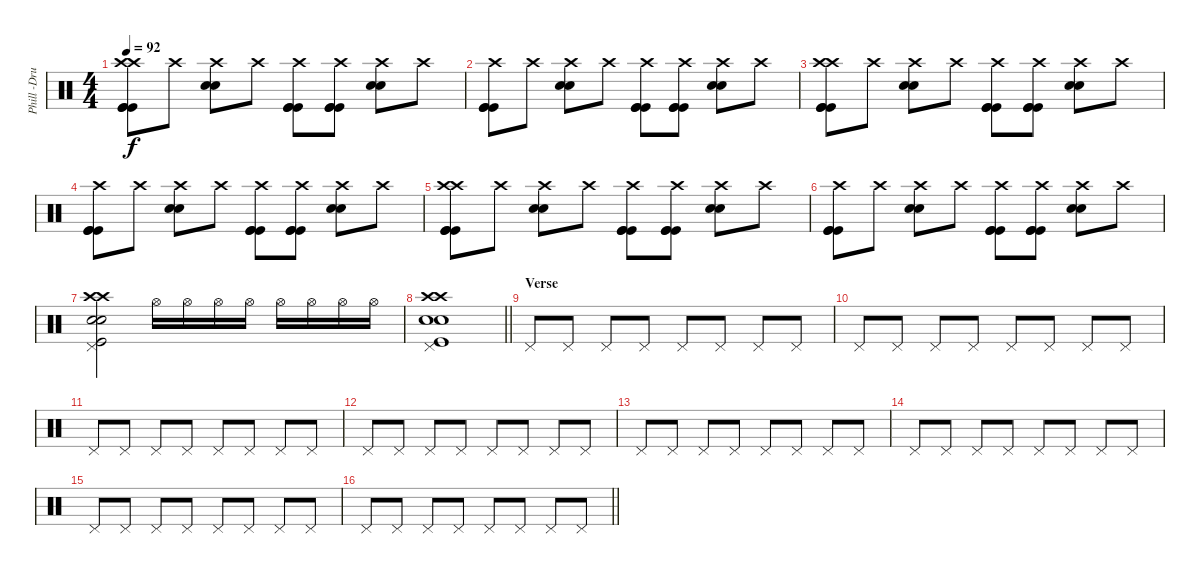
\track ("Phill -Drums" "Phill -Dru") {instrument percussion}
\staff {score}
\articulation defaults
\ts (4 4)
\tempo 92
\clef neutral
\ks c
("Crash high (hit)" "Crash high (hit)" "Kick (hit)" "Kick (hit)" "Kick (hit)").8{dy f} "Crash high (hit)".8 ("Crash high (hit)" "Snare (hit) 2" "Snare (hit) 2").8 "Crash high (hit)".8 ("Crash high (hit)" "Kick (hit)" "Kick (hit)" "Kick (hit)").8 ("Crash high (hit)" "Kick (hit)" "Kick (hit)" "Kick (hit)").8 ("Crash high (hit)" "Snare (hit) 2" "Snare (hit) 2").8 "Crash high (hit)".8 |
("Crash high (hit)" "Kick (hit)" "Kick (hit)" "Kick (hit)").8 "Crash high (hit)".8 ("Crash high (hit)" "Snare (hit) 2" "Snare (hit) 2").8 "Crash high (hit)".8 ("Crash high (hit)" "Kick (hit)" "Kick (hit)" "Kick (hit)").8 ("Crash high (hit)" "Kick (hit)" "Kick (hit)" "Kick (hit)").8 ("Crash high (hit)" "Snare (hit) 2" "Snare (hit) 2").8 "Crash high (hit)".8 |
("Crash high (hit)" "Crash high (hit)" "Kick (hit)" "Kick (hit)" "Kick (hit)").8 "Crash high (hit)".8 ("Crash high (hit)" "Snare (hit) 2" "Snare (hit) 2").8 "Crash high (hit)".8 ("Crash high (hit)" "Kick (hit)" "Kick (hit)" "Kick (hit)").8 ("Crash high (hit)" "Kick (hit)" "Kick (hit)" "Kick (hit)").8 ("Crash high (hit)" "Snare (hit) 2" "Snare (hit) 2").8 "Crash high (hit)".8 |
("Crash high (hit)" "Kick (hit)" "Kick (hit)" "Kick (hit)").8 "Crash high (hit)".8 ("Crash high (hit)" "Snare (hit) 2" "Snare (hit) 2").8 "Crash high (hit)".8 ("Crash high (hit)" "Kick (hit)" "Kick (hit)" "Kick (hit)").8 ("Crash high (hit)" "Kick (hit)" "Kick (hit)" "Kick (hit)").8 ("Crash high (hit)" "Snare (hit) 2" "Snare (hit) 2").8 "Crash high (hit)".8 |
("Crash high (hit)" "Crash high (hit)" "Kick (hit)" "Kick (hit)" "Kick (hit)").8 "Crash high (hit)".8 ("Crash high (hit)" "Snare (hit) 2" "Snare (hit) 2").8 "Crash high (hit)".8 ("Crash high (hit)" "Kick (hit)" "Kick (hit)" "Kick (hit)").8 ("Crash high (hit)" "Kick (hit)" "Kick (hit)" "Kick (hit)").8 ("Crash high (hit)" "Snare (hit) 2" "Snare (hit) 2").8 "Crash high (hit)".8 |
("Crash high (hit)" "Kick (hit)" "Kick (hit)" "Kick (hit)").8 "Crash high (hit)".8 ("Crash high (hit)" "Snare (hit) 2" "Snare (hit) 2").8 "Crash high (hit)".8 ("Crash high (hit)" "Kick (hit)" "Kick (hit)" "Kick (hit)").8 ("Crash high (hit)" "Kick (hit)" "Kick (hit)" "Kick (hit)").8 ("Crash high (hit)" "Snare (hit) 2" "Snare (hit) 2").8 "Crash high (hit)".8 |
("Pedal Hi-Hat (hit)" "Crash high (hit)" "Crash high (hit)" "Snare (hit) 2" "Snare (hit) 2" "Kick (hit)").2 "Hi-Hat (open)".16 "Hi-Hat (open)".16 "Hi-Hat (open)".16 "Hi-Hat (open)".16 "Hi-Hat (open)".16 "Hi-Hat (open)".16 "Hi-Hat (open)".16 "Hi-Hat (open)".16 |
\barLineRight lightlight
("Pedal Hi-Hat (hit)" "Crash high (hit)" "Crash high (hit)" "Snare (hit) 2" "Snare (hit) 2" "Kick (hit)").1 |
\section ("" "Verse")
"Pedal Hi-Hat (hit)".8{volume 5} "Pedal Hi-Hat (hit)".8 "Pedal Hi-Hat (hit)".8 "Pedal Hi-Hat (hit)".8 "Pedal Hi-Hat (hit)".8 "Pedal Hi-Hat (hit)".8 "Pedal Hi-Hat (hit)".8 "Pedal Hi-Hat (hit)".8 |
"Pedal Hi-Hat (hit)".8 "Pedal Hi-Hat (hit)".8 "Pedal Hi-Hat (hit)".8 "Pedal Hi-Hat (hit)".8 "Pedal Hi-Hat (hit)".8 "Pedal Hi-Hat (hit)".8 "Pedal Hi-Hat (hit)".8 "Pedal Hi-Hat (hit)".8 |
"Pedal Hi-Hat (hit)".8 "Pedal Hi-Hat (hit)".8 "Pedal Hi-Hat (hit)".8 "Pedal Hi-Hat (hit)".8 "Pedal Hi-Hat (hit)".8 "Pedal Hi-Hat (hit)".8 "Pedal Hi-Hat (hit)".8 "Pedal Hi-Hat (hit)".8 |
"Pedal Hi-Hat (hit)".8 "Pedal Hi-Hat (hit)".8 "Pedal Hi-Hat (hit)".8 "Pedal Hi-Hat (hit)".8 "Pedal Hi-Hat (hit)".8 "Pedal Hi-Hat (hit)".8 "Pedal Hi-Hat (hit)".8 "Pedal Hi-Hat (hit)".8 |
"Pedal Hi-Hat (hit)".8 "Pedal Hi-Hat (hit)".8 "Pedal Hi-Hat (hit)".8 "Pedal Hi-Hat (hit)".8 "Pedal Hi-Hat (hit)".8 "Pedal Hi-Hat (hit)".8 "Pedal Hi-Hat (hit)".8 "Pedal Hi-Hat (hit)".8 |
"Pedal Hi-Hat (hit)".8 "Pedal Hi-Hat (hit)".8 "Pedal Hi-Hat (hit)".8 "Pedal Hi-Hat (hit)".8 "Pedal Hi-Hat (hit)".8 "Pedal Hi-Hat (hit)".8 "Pedal Hi-Hat (hit)".8 "Pedal Hi-Hat (hit)".8 |
"Pedal Hi-Hat (hit)".8 "Pedal Hi-Hat (hit)".8 "Pedal Hi-Hat (hit)".8 "Pedal Hi-Hat (hit)".8 "Pedal Hi-Hat (hit)".8 "Pedal Hi-Hat (hit)".8 "Pedal Hi-Hat (hit)".8 "Pedal Hi-Hat (hit)".8 |
\barLineRight lightlight "Pedal Hi-Hat (hit)".8 "Pedal Hi-Hat (hit)".8 "Pedal Hi-Hat (hit)".8 "Pedal Hi-Hat (hit)".8 "Pedal Hi-Hat (hit)".8 "Pedal Hi-Hat (hit)".8 "Pedal Hi-Hat (hit)".8 "Pedal Hi-Hat (hit)".8
